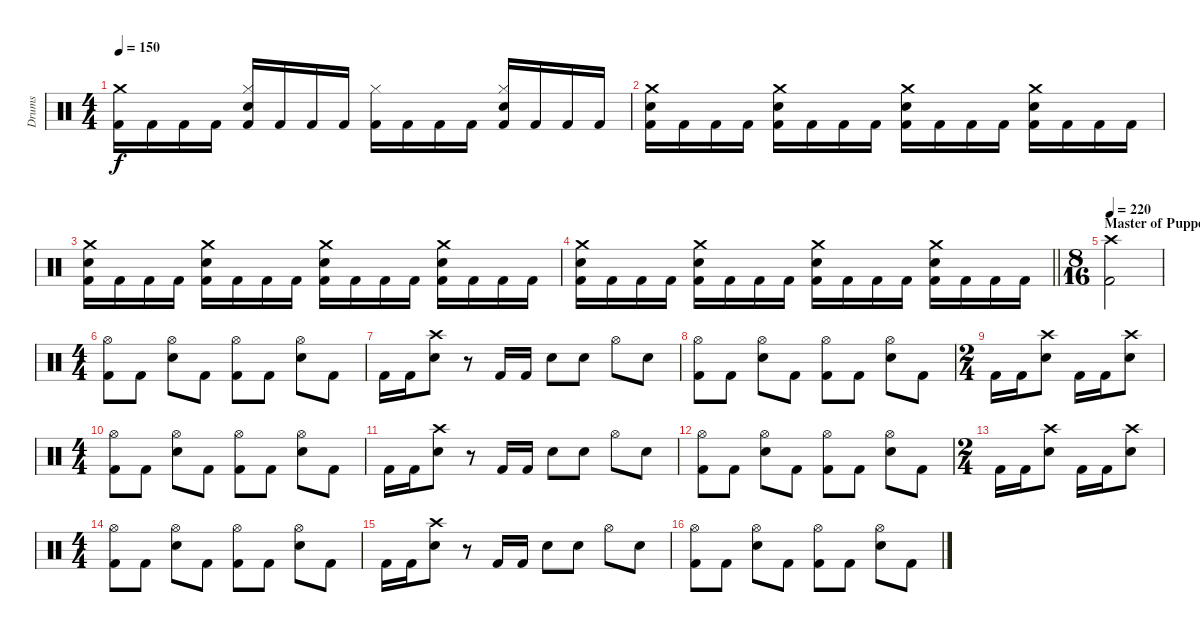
\track ("Drums" "Drums") {instrument percussion}
\staff {score}
\articulation defaults
\ts (4 4)
\tempo 150
\clef neutral
\ks c
("Crash medium (hit)" "Kick (hit) 2").16{dy f} "Kick (hit) 2".16 "Kick (hit) 2".16 "Kick (hit) 2".16 ("Hi-Hat (closed)" "Snare (hit) 2" "Kick (hit) 2").16 "Kick (hit) 2".16 "Kick (hit) 2".16 "Kick (hit) 2".16 ("Hi-Hat (closed)" "Kick (hit) 2").16 "Kick (hit) 2".16 "Kick (hit) 2".16 "Kick (hit) 2".16 ("Hi-Hat (closed)" "Snare (hit) 2" "Kick (hit) 2").16 "Kick (hit) 2".16 "Kick (hit) 2".16 "Kick (hit) 2".16 |
("Crash medium (hit)" "Snare (hit) 2" "Kick (hit) 2").16 "Kick (hit) 2".16 "Kick (hit) 2".16 "Kick (hit) 2".16 ("Crash medium (hit)" "Snare (hit) 2" "Kick (hit) 2").16 "Kick (hit) 2".16 "Kick (hit) 2".16 "Kick (hit) 2".16 ("Crash medium (hit)" "Snare (hit) 2" "Kick (hit) 2").16 "Kick (hit) 2".16 "Kick (hit) 2".16 "Kick (hit) 2".16 ("Crash medium (hit)" "Snare (hit) 2" "Kick (hit) 2").16 "Kick (hit) 2".16 "Kick (hit) 2".16 "Kick (hit) 2".16 |
("Crash medium (hit)" "Snare (hit) 2" "Kick (hit) 2").16 "Kick (hit) 2".16 "Kick (hit) 2".16 "Kick (hit) 2".16 ("Crash medium (hit)" "Snare (hit) 2" "Kick (hit) 2").16 "Kick (hit) 2".16 "Kick (hit) 2".16 "Kick (hit) 2".16 ("Crash medium (hit)" "Snare (hit) 2" "Kick (hit) 2").16 "Kick (hit) 2".16 "Kick (hit) 2".16 "Kick (hit) 2".16 ("Crash medium (hit)" "Snare (hit) 2" "Kick (hit) 2").16 "Kick (hit) 2".16 "Kick (hit) 2".16 "Kick (hit) 2".16 |
\barLineRight lightlight
("Crash medium (hit)" "Snare (hit) 2" "Kick (hit) 2").16 "Kick (hit) 2".16 "Kick (hit) 2".16 "Kick (hit) 2".16 ("Crash medium (hit)" "Snare (hit) 2" "Kick (hit) 2").16 "Kick (hit) 2".16 "Kick (hit) 2".16 "Kick (hit) 2".16 ("Crash medium (hit)" "Snare (hit) 2" "Kick (hit) 2").16 "Kick (hit) 2".16 "Kick (hit) 2".16 "Kick (hit) 2".16 ("Crash medium (hit)" "Snare (hit) 2" "Kick (hit) 2").16 "Kick (hit) 2".16 "Kick (hit) 2".16 "Kick (hit) 2".16 |
\ts (8 16)
\section ("" "Master of Puppets II")
\tempo 220
("Crash high (hit)" "Kick (hit) 2").2 |
\ts (4 4)
("Hi-Hat (open)" "Kick (hit) 2").8 "Kick (hit) 2".8 ("Hi-Hat (open)" "Snare (hit) 2").8 "Kick (hit) 2".8 ("Hi-Hat (open)" "Kick (hit) 2").8 "Kick (hit) 2".8 ("Hi-Hat (open)" "Snare (hit) 2").8 "Kick (hit) 2".8 |
"Kick (hit) 2".16 "Kick (hit) 2".16 ("Crash high (hit)" "Snare (hit) 2").8 r.8 "Kick (hit) 2".16 "Kick (hit) 2".16 "Snare (hit) 2".8 "Snare (hit) 2".8 "Hi-Hat (open)".8 "Snare (hit) 2".8 |
("Hi-Hat (open)" "Kick (hit) 2").8 "Kick (hit) 2".8 ("Hi-Hat (open)" "Snare (hit) 2").8 "Kick (hit) 2".8 ("Hi-Hat (open)" "Kick (hit) 2").8 "Kick (hit) 2".8 ("Hi-Hat (open)" "Snare (hit) 2").8 "Kick (hit) 2".8 |
\ts (2 4)
"Kick (hit) 2".16 "Kick (hit) 2".16 ("Crash high (hit)" "Snare (hit) 2").8 "Kick (hit) 2".16 "Kick (hit) 2".16 ("Crash high (hit)" "Snare (hit) 2").8 |
\ts (4 4)
("Hi-Hat (open)" "Kick (hit) 2").8 "Kick (hit) 2".8 ("Hi-Hat (open)" "Snare (hit) 2").8 "Kick (hit) 2".8 ("Hi-Hat (open)" "Kick (hit) 2").8 "Kick (hit) 2".8 ("Hi-Hat (open)" "Snare (hit) 2").8 "Kick (hit) 2".8 |
"Kick (hit) 2".16 "Kick (hit) 2".16 ("Crash high (hit)" "Snare (hit) 2").8 r.8 "Kick (hit) 2".16 "Kick (hit) 2".16 "Snare (hit) 2".8 "Snare (hit) 2".8 "Hi-Hat (open)".8 "Snare (hit) 2".8 |
("Hi-Hat (open)" "Kick (hit) 2").8 "Kick (hit) 2".8 ("Hi-Hat (open)" "Snare (hit) 2").8 "Kick (hit) 2".8 ("Hi-Hat (open)" "Kick (hit) 2").8 "Kick (hit) 2".8 ("Hi-Hat (open)" "Snare (hit) 2").8 "Kick (hit) 2".8 |
\ts (2 4)
"Kick (hit) 2".16 "Kick (hit) 2".16 ("Crash high (hit)" "Snare (hit) 2").8 "Kick (hit) 2".16 "Kick (hit) 2".16 ("Crash high (hit)" "Snare (hit) 2").8 |
\ts (4 4)
("Hi-Hat (open)" "Kick (hit) 2").8 "Kick (hit) 2".8 ("Hi-Hat (open)" "Snare (hit) 2").8 "Kick (hit) 2".8 ("Hi-Hat (open)" "Kick (hit) 2").8 "Kick (hit) 2".8 ("Hi-Hat (open)" "Snare (hit) 2").8 "Kick (hit) 2".8 |
"Kick (hit) 2".16 "Kick (hit) 2".16 ("Crash high (hit)" "Snare (hit) 2").8 r.8 "Kick (hit) 2".16 "Kick (hit) 2".16 "Snare (hit) 2".8 "Snare (hit) 2".8 "Hi-Hat (open)".8 "Snare (hit) 2".8 |
("Hi-Hat (open)" "Kick (hit) 2").8 "Kick (hit) 2".8 ("Hi-Hat (open)" "Snare (hit) 2").8 "Kick (hit) 2".8 ("Hi-Hat (open)" "Kick (hit) 2").8 "Kick (hit) 2".8 ("Hi-Hat (open)" "Snare (hit) 2").8 "Kick (hit) 2".8
